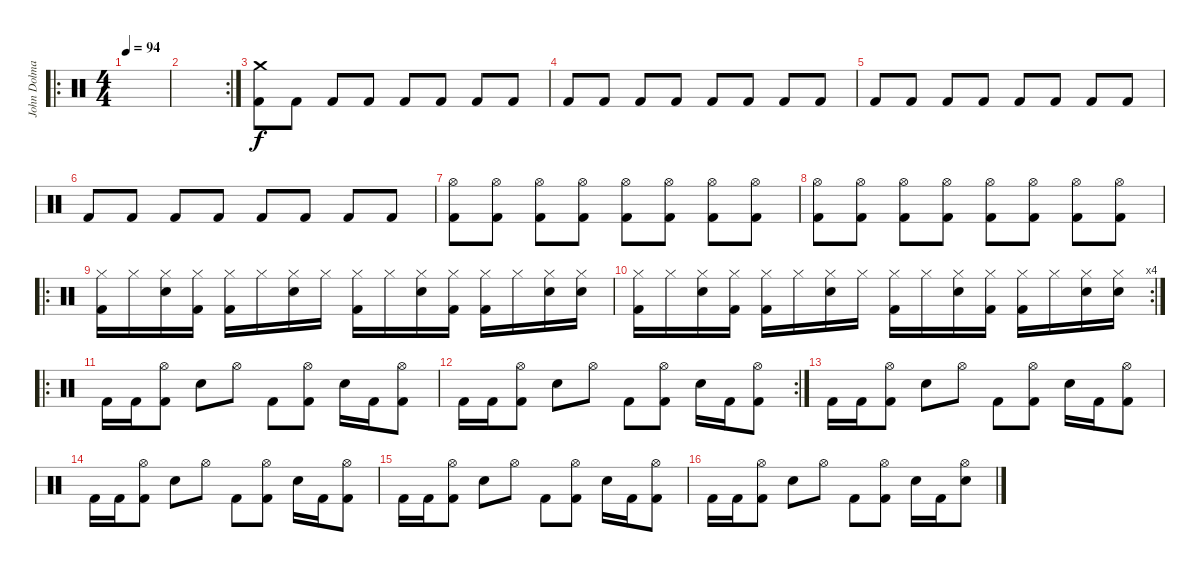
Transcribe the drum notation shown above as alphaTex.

\track ("John Dolmayan" "John Dolma") {instrument percussion}
\staff {score}
\articulation defaults
\ro
\ts (4 4)
\tempo 94
\clef neutral
\ks c
|
\rc 2
|
("Kick (hit) 2" "Crash medium (hit)").8 "Kick (hit) 2".8 "Kick (hit) 2".8 "Kick (hit) 2".8 "Kick (hit) 2".8 "Kick (hit) 2".8 "Kick (hit) 2".8 "Kick (hit) 2".8 |
"Kick (hit) 2".8 "Kick (hit) 2".8 "Kick (hit) 2".8 "Kick (hit) 2".8 "Kick (hit) 2".8 "Kick (hit) 2".8 "Kick (hit) 2".8 "Kick (hit) 2".8 |
"Kick (hit) 2".8 "Kick (hit) 2".8 "Kick (hit) 2".8 "Kick (hit) 2".8 "Kick (hit) 2".8 "Kick (hit) 2".8 "Kick (hit) 2".8 "Kick (hit) 2".8 |
"Kick (hit) 2".8 "Kick (hit) 2".8 "Kick (hit) 2".8 "Kick (hit) 2".8 "Kick (hit) 2".8 "Kick (hit) 2".8 "Kick (hit) 2".8 "Kick (hit) 2".8 |
("Kick (hit) 2" "Hi-Hat (open)").8 ("Kick (hit) 2" "Hi-Hat (open)").8 ("Kick (hit) 2" "Hi-Hat (open)").8 ("Kick (hit) 2" "Hi-Hat (open)").8 ("Kick (hit) 2" "Hi-Hat (open)").8 ("Kick (hit) 2" "Hi-Hat (open)").8 ("Kick (hit) 2" "Hi-Hat (open)").8 ("Kick (hit) 2" "Hi-Hat (open)").8 |
("Kick (hit) 2" "Hi-Hat (open)").8 ("Kick (hit) 2" "Hi-Hat (open)").8 ("Kick (hit) 2" "Hi-Hat (open)").8 ("Kick (hit) 2" "Hi-Hat (open)").8 ("Kick (hit) 2" "Hi-Hat (open)").8 ("Kick (hit) 2" "Hi-Hat (open)").8 ("Kick (hit) 2" "Hi-Hat (open)").8 ("Kick (hit) 2" "Hi-Hat (open)").8 |
\ro
("Kick (hit) 2" "Hi-Hat (closed)").16 "Hi-Hat (closed)".16 ("Snare (hit) 2" "Hi-Hat (closed)").16 ("Kick (hit) 2" "Hi-Hat (closed)").16 ("Kick (hit) 2" "Hi-Hat (closed)").16 "Hi-Hat (closed)".16 ("Snare (hit) 2" "Hi-Hat (closed)").16 "Hi-Hat (closed)".16 ("Kick (hit) 2" "Hi-Hat (closed)").16 "Hi-Hat (closed)".16 ("Snare (hit) 2" "Hi-Hat (closed)").16 ("Kick (hit) 2" "Hi-Hat (closed)").16 ("Kick (hit) 2" "Hi-Hat (closed)").16 "Hi-Hat (closed)".16 ("Snare (hit) 2" "Hi-Hat (closed)").16 ("Snare (hit) 2" "Hi-Hat (closed)").16 |
\rc 4
("Kick (hit) 2" "Hi-Hat (closed)").16 "Hi-Hat (closed)".16 ("Snare (hit) 2" "Hi-Hat (closed)").16 ("Kick (hit) 2" "Hi-Hat (closed)").16 ("Kick (hit) 2" "Hi-Hat (closed)").16 "Hi-Hat (closed)".16 ("Snare (hit) 2" "Hi-Hat (closed)").16 "Hi-Hat (closed)".16 ("Kick (hit) 2" "Hi-Hat (closed)").16 "Hi-Hat (closed)".16 ("Snare (hit) 2" "Hi-Hat (closed)").16 ("Kick (hit) 2" "Hi-Hat (closed)").16 ("Kick (hit) 2" "Hi-Hat (closed)").16 "Hi-Hat (closed)".16 ("Snare (hit) 2" "Hi-Hat (closed)").16 ("Snare (hit) 2" "Hi-Hat (closed)").16 |
\ro "Kick (hit) 2".16 "Kick (hit) 2".16
("Kick (hit) 2" "Hi-Hat (open)").8 "Snare (hit) 2".8 "Hi-Hat (open)".8 "Kick (hit) 2".8 ("Kick (hit) 2" "Hi-Hat (open)").8 "Snare (hit) 2".16 "Kick (hit) 2".16 ("Kick (hit) 2" "Hi-Hat (open)").8 |
\rc 2 "Kick (hit) 2".16 "Kick (hit) 2".16
("Kick (hit) 2" "Hi-Hat (open)").8 "Snare (hit) 2".8 "Hi-Hat (open)".8 "Kick (hit) 2".8 ("Kick (hit) 2" "Hi-Hat (open)").8 "Snare (hit) 2".16 "Kick (hit) 2".16 ("Kick (hit) 2" "Hi-Hat (open)").8 |
"Kick (hit) 2".16 "Kick (hit) 2".16 ("Kick (hit) 2" "Hi-Hat (open)").8 "Snare (hit) 2".8 "Hi-Hat (open)".8 "Kick (hit) 2".8 ("Kick (hit) 2" "Hi-Hat (open)").8 "Snare (hit) 2".16 "Kick (hit) 2".16 ("Kick (hit) 2" "Hi-Hat (open)").8 |
"Kick (hit) 2".16 "Kick (hit) 2".16 ("Kick (hit) 2" "Hi-Hat (open)").8 "Snare (hit) 2".8 "Hi-Hat (open)".8 "Kick (hit) 2".8 ("Kick (hit) 2" "Hi-Hat (open)").8 "Snare (hit) 2".16 "Kick (hit) 2".16 ("Kick (hit) 2" "Hi-Hat (open)").8 |
"Kick (hit) 2".16 "Kick (hit) 2".16 ("Kick (hit) 2" "Hi-Hat (open)").8 "Snare (hit) 2".8 "Hi-Hat (open)".8 "Kick (hit) 2".8 ("Kick (hit) 2" "Hi-Hat (open)").8 "Snare (hit) 2".16 "Kick (hit) 2".16 ("Kick (hit) 2" "Hi-Hat (open)").8 |
"Kick (hit) 2".16 "Kick (hit) 2".16 ("Kick (hit) 2" "Hi-Hat (open)").8 "Snare (hit) 2".8 "Hi-Hat (open)".8 "Kick (hit) 2".8 ("Kick (hit) 2" "Hi-Hat (open)").8 "Snare (hit) 2".16 "Kick (hit) 2".16 ("Snare (hit) 2" "Hi-Hat (open)").8
